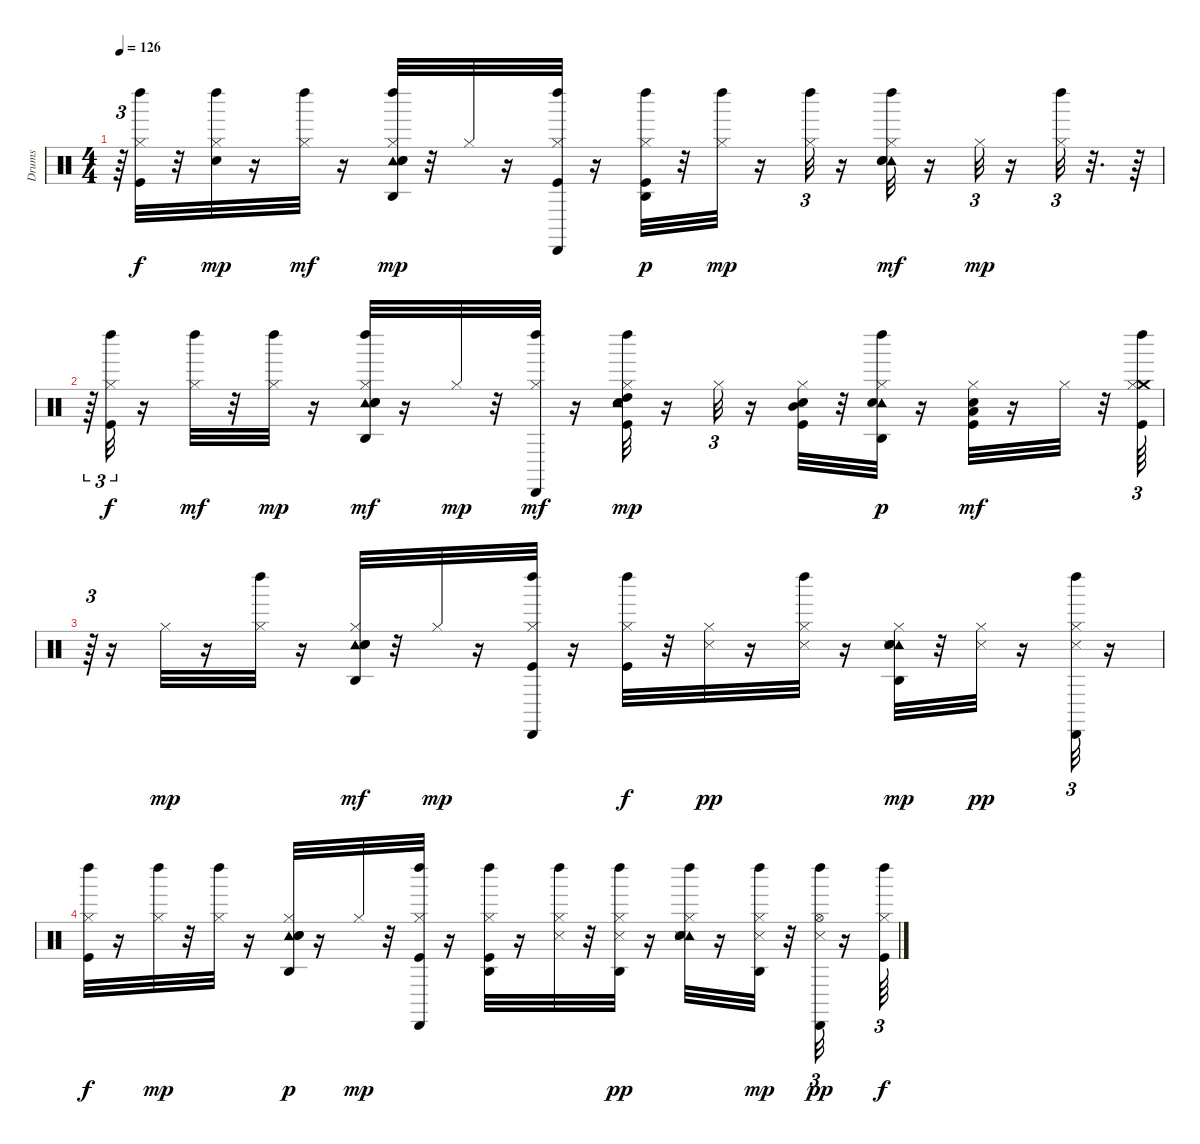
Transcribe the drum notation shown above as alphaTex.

\track ("Drums" "Drums") {instrument percussion}
\staff {score}
\articulation defaults
\ts (4 4)
\tempo 126
\clef neutral
\ks c
r.64{tu (3 2) dy pp} ("Left Maraca (hit)" "Kick (hit)" "Hi-Hat (closed)").32{dy f} r.32 ("Electric Snare (hit)" "Left Maraca (hit)" "Hi-Hat (closed)").32{dy mp} r.16 ("Left Maraca (hit)" "Hi-Hat (closed)").32{dy mf} r.16 ("Left Maraca (hit)" "Tambourine (hit)" "Snare (hit) 2" "Hi-Hat (closed)" "Agogo high (hit)" "Hand Clap (hit)").32{dy mp} r.32 "Hi-Hat (closed)".32 r.16 ("Kick (hit)" "Hi-Hat (closed)" "Left Maraca (hit)" "Cabasa (hit)").32 r.16 ("Hi-Hat (closed)" "Kick (hit)" "Left Maraca (hit)" "Agogo high (hit)").32{dy p} r.32 ("Hi-Hat (closed)" "Left Maraca (hit)").32{dy mp} r.16 ("Hi-Hat (closed)" "Left Maraca (hit)").32{tu (3 2)} r.16 ("Hi-Hat (closed)" "Tambourine (hit)" "Hand Clap (hit)" "Snare (hit) 2" "Left Maraca (hit)").32{dy mf} r.16 "Hi-Hat (closed)".32{tu (3 2) dy mp} r.16 ("Hi-Hat (closed)" "Left Maraca (hit)").32{tu (3 2)} r.32{d} r.64 |
r.64{tu (3 2)} ("Kick (hit)" "Hi-Hat (closed)" "Left Maraca (hit)").32{tu (3 2) dy f} r.16 ("Hi-Hat (closed)" "Left Maraca (hit)").32{dy mf} r.32 ("Hi-Hat (closed)" "Left Maraca (hit)").32{dy mp} r.16 ("Hi-Hat (closed)" "Tambourine (hit)" "Agogo high (hit)" "Snare (hit) 2" "Left Maraca (hit)" "Hand Clap (hit)").32{dy mf} r.16 "Hi-Hat (closed)".32{dy mp} r.32 ("Cabasa (hit)" "Hi-Hat (closed)" "Left Maraca (hit)").32{dy mf} r.16 ("Hi-Hat (closed)" "Tambourine (hit)" "Kick (hit)" "Snare (hit) 2" "High Tom (hit)" "Left Maraca (hit)").32{dy mp} r.16 "Hi-Hat (closed)".32{tu (3 2)} r.16 ("Hi-Hat (closed)" "Snare (hit) 2" "Mid Tom (hit)" "Kick (hit)").32 r.32 ("Tambourine (hit)" "Hand Clap (hit)" "Left Maraca (hit)" "Agogo high (hit)" "Hi-Hat (closed)").32{dy p} r.16 ("Hi-Hat (closed)" "Kick (hit)" "Snare (hit) 2" "Low Tom (hit)").32{dy mf} r.16 "Hi-Hat (closed)".32 r.32 ("Crash medium (hit)" "Kick (hit)" "Hi-Hat (closed)" "Left Maraca (hit)").64{tu (3 2)} |
r.64{tu (3 2)} r.16 "Hi-Hat (closed)".32{dy mp} r.16 ("Hi-Hat (closed)" "Left Maraca (hit)").32 r.16 ("Hi-Hat (closed)" "Tambourine (hit)" "Agogo high (hit)" "Snare (hit) 2" "Hand Clap (hit)").32{dy mf} r.32 "Hi-Hat (closed)".32{dy mp} r.16 ("Cabasa (hit)" "Kick (hit)" "Hi-Hat (closed)" "Left Maraca (hit)").32 r.16 ("Hi-Hat (closed)" "Kick (hit)" "Left Maraca (hit)").32{dy f} r.32 ("Hi-Hat (closed)" "Snare (side stick) 3").32{dy pp} r.16 ("Hi-Hat (closed)" "Left Maraca (hit)" "Snare (side stick) 3").32 r.16 ("Hi-Hat (closed)" "Tambourine (hit)" "Hand Clap (hit)" "Snare (hit) 2" "Snare (side stick) 3" "Agogo high (hit)").32{dy mp} r.32 ("Hi-Hat (closed)" "Snare (side stick) 3").32{dy pp} r.16 ("Cabasa (hit)" "Hi-Hat (closed)" "Left Maraca (hit)" "Snare (side stick) 3").32{tu (3 2)} r.16 |
("Kick (hit)" "Hi-Hat (closed)" "Left Maraca (hit)").32{dy f} r.16 ("Hi-Hat (closed)" "Left Maraca (hit)").32{dy mp} r.32 ("Left Maraca (hit)" "Hi-Hat (closed)").32 r.16 ("Tambourine (hit)" "Snare (hit) 2" "Hi-Hat (closed)" "Agogo high (hit)" "Hand Clap (hit)").32{dy p} r.16 "Hi-Hat (closed)".32{dy mp} r.32 ("Kick (hit)" "Hi-Hat (closed)" "Left Maraca (hit)" "Cabasa (hit)").32 r.16 ("Kick (hit)" "Hi-Hat (closed)" "Left Maraca (hit)" "Agogo high (hit)").32 r.16 ("Hi-Hat (closed)" "Snare (side stick) 3" "Left Maraca (hit)").32 r.32 ("Hi-Hat (closed)" "Left Maraca (hit)" "Agogo high (hit)" "Snare (side stick) 3").32{dy pp} r.16 ("Hi-Hat (closed)" "Tambourine (hit)" "Hand Clap (hit)" "Snare (hit) 2" "Snare (side stick) 3" "Left Maraca (hit)").32 r.16 ("Hi-Hat (closed)" "Left Maraca (hit)" "Snare (side stick) 3" "Agogo high (hit)").32{dy mp} r.32 ("Hi-Hat (open)" "Left Maraca (hit)" "Cabasa (hit)" "Snare (side stick) 3").32{tu (3 2) dy pp} r.16 ("Kick (hit)" "Hi-Hat (closed)" "Left Maraca (hit)").64{tu (3 2) dy f}
